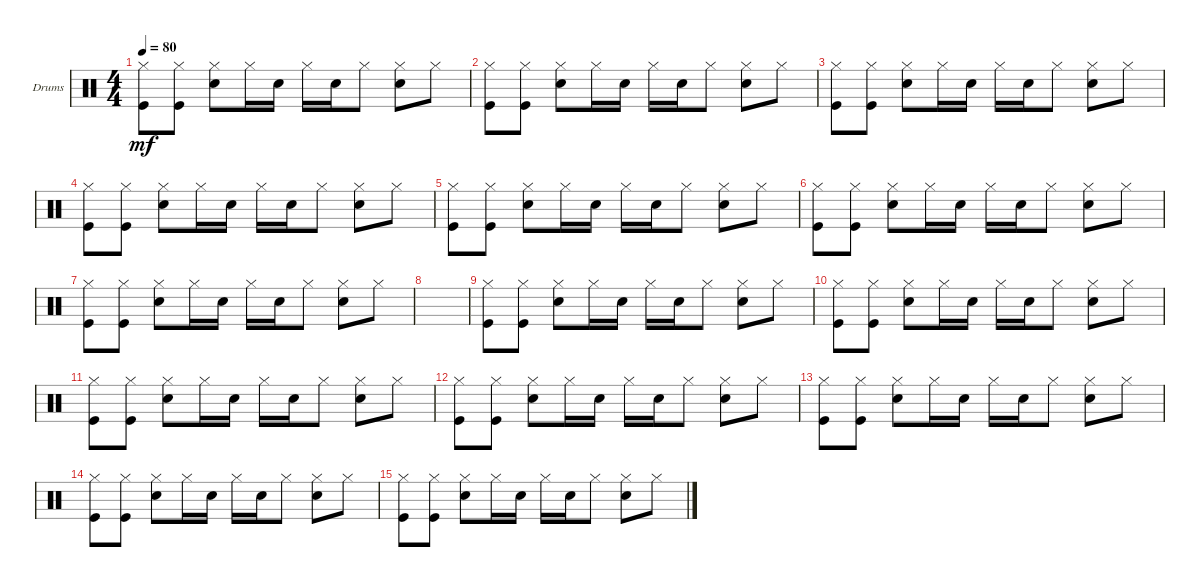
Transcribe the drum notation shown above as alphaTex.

\defaultSystemsLayout 4
\bracketExtendMode groupsimilarinstruments
\firstSystemTrackNameOrientation horizontal
\otherSystemsTrackNameOrientation horizontal
\track ("Drumkit" "Drums") {instrument percussion}
\staff {score}
\articulation defaults
\ts (4 4)
\tempo 80
\clef neutral
\scale
0.333333
\ks c
("Kick (hit)" "Hi-Hat (closed)").8{dy mf} ("Kick (hit)" "Hi-Hat (closed)").8 ("Snare (hit) 2" "Hi-Hat (closed)").8 "Hi-Hat (closed)".16 "Snare (hit) 2".16 "Hi-Hat (closed)".16 "Snare (hit) 2".16 "Hi-Hat (closed)".8 ("Hi-Hat (closed)" "Snare (hit) 2").8 "Hi-Hat (closed)".8 |
\scale
0.333333 ("Kick (hit)" "Hi-Hat (closed)").8 ("Kick (hit)" "Hi-Hat (closed)").8 ("Snare (hit) 2" "Hi-Hat (closed)").8 "Hi-Hat (closed)".16 "Snare (hit) 2".16 "Hi-Hat (closed)".16 "Snare (hit) 2".16 "Hi-Hat (closed)".8 ("Hi-Hat (closed)" "Snare (hit) 2").8 "Hi-Hat (closed)".8 |
\scale
0.333333 ("Kick (hit)" "Hi-Hat (closed)").8 ("Kick (hit)" "Hi-Hat (closed)").8 ("Snare (hit) 2" "Hi-Hat (closed)").8 "Hi-Hat (closed)".16 "Snare (hit) 2".16 "Hi-Hat (closed)".16 "Snare (hit) 2".16 "Hi-Hat (closed)".8 ("Hi-Hat (closed)" "Snare (hit) 2").8 "Hi-Hat (closed)".8 |
\scale
0.333333 ("Kick (hit)" "Hi-Hat (closed)").8 ("Kick (hit)" "Hi-Hat (closed)").8 ("Snare (hit) 2" "Hi-Hat (closed)").8 "Hi-Hat (closed)".16 "Snare (hit) 2".16 "Hi-Hat (closed)".16 "Snare (hit) 2".16 "Hi-Hat (closed)".8 ("Hi-Hat (closed)" "Snare (hit) 2").8 "Hi-Hat (closed)".8 |
\scale
0.333333 ("Kick (hit)" "Hi-Hat (closed)").8 ("Kick (hit)" "Hi-Hat (closed)").8 ("Snare (hit) 2" "Hi-Hat (closed)").8 "Hi-Hat (closed)".16 "Snare (hit) 2".16 "Hi-Hat (closed)".16 "Snare (hit) 2".16 "Hi-Hat (closed)".8 ("Hi-Hat (closed)" "Snare (hit) 2").8 "Hi-Hat (closed)".8 |
\scale
0.333333 ("Kick (hit)" "Hi-Hat (closed)").8 ("Kick (hit)" "Hi-Hat (closed)").8 ("Snare (hit) 2" "Hi-Hat (closed)").8 "Hi-Hat (closed)".16 "Snare (hit) 2".16 "Hi-Hat (closed)".16 "Snare (hit) 2".16 "Hi-Hat (closed)".8 ("Hi-Hat (closed)" "Snare (hit) 2").8 "Hi-Hat (closed)".8 |
\scale
0.333333 ("Kick (hit)" "Hi-Hat (closed)").8 ("Kick (hit)" "Hi-Hat (closed)").8 ("Snare (hit) 2" "Hi-Hat (closed)").8 "Hi-Hat (closed)".16 "Snare (hit) 2".16 "Hi-Hat (closed)".16 "Snare (hit) 2".16 "Hi-Hat (closed)".8 ("Hi-Hat (closed)" "Snare (hit) 2").8 "Hi-Hat (closed)".8 |
\scale
0.333333 |
\scale
0.333333 ("Kick (hit)" "Hi-Hat (closed)").8 ("Kick (hit)" "Hi-Hat (closed)").8 ("Snare (hit) 2" "Hi-Hat (closed)").8 "Hi-Hat (closed)".16 "Snare (hit) 2".16 "Hi-Hat (closed)".16 "Snare (hit) 2".16 "Hi-Hat (closed)".8 ("Hi-Hat (closed)" "Snare (hit) 2").8 "Hi-Hat (closed)".8 |
\scale
0.333333 ("Kick (hit)" "Hi-Hat (closed)").8 ("Kick (hit)" "Hi-Hat (closed)").8 ("Snare (hit) 2" "Hi-Hat (closed)").8 "Hi-Hat (closed)".16 "Snare (hit) 2".16 "Hi-Hat (closed)".16 "Snare (hit) 2".16 "Hi-Hat (closed)".8 ("Hi-Hat (closed)" "Snare (hit) 2").8 "Hi-Hat (closed)".8 |
\scale
0.333333 ("Kick (hit)" "Hi-Hat (closed)").8 ("Kick (hit)" "Hi-Hat (closed)").8 ("Snare (hit) 2" "Hi-Hat (closed)").8 "Hi-Hat (closed)".16 "Snare (hit) 2".16 "Hi-Hat (closed)".16 "Snare (hit) 2".16 "Hi-Hat (closed)".8 ("Hi-Hat (closed)" "Snare (hit) 2").8 "Hi-Hat (closed)".8 |
("Kick (hit)" "Hi-Hat (closed)").8 ("Kick (hit)" "Hi-Hat (closed)").8 ("Snare (hit) 2" "Hi-Hat (closed)").8 "Hi-Hat (closed)".16 "Snare (hit) 2".16 "Hi-Hat (closed)".16 "Snare (hit) 2".16 "Hi-Hat (closed)".8 ("Hi-Hat (closed)" "Snare (hit) 2").8 "Hi-Hat (closed)".8 |
("Kick (hit)" "Hi-Hat (closed)").8 ("Kick (hit)" "Hi-Hat (closed)").8 ("Snare (hit) 2" "Hi-Hat (closed)").8 "Hi-Hat (closed)".16 "Snare (hit) 2".16 "Hi-Hat (closed)".16 "Snare (hit) 2".16 "Hi-Hat (closed)".8 ("Hi-Hat (closed)" "Snare (hit) 2").8 "Hi-Hat (closed)".8 |
("Kick (hit)" "Hi-Hat (closed)").8 ("Kick (hit)" "Hi-Hat (closed)").8 ("Snare (hit) 2" "Hi-Hat (closed)").8 "Hi-Hat (closed)".16 "Snare (hit) 2".16 "Hi-Hat (closed)".16 "Snare (hit) 2".16 "Hi-Hat (closed)".8 ("Hi-Hat (closed)" "Snare (hit) 2").8 "Hi-Hat (closed)".8 |
("Kick (hit)" "Hi-Hat (closed)").8 ("Kick (hit)" "Hi-Hat (closed)").8 ("Snare (hit) 2" "Hi-Hat (closed)").8 "Hi-Hat (closed)".16 "Snare (hit) 2".16 "Hi-Hat (closed)".16 "Snare (hit) 2".16 "Hi-Hat (closed)".8 ("Hi-Hat (closed)" "Snare (hit) 2").8 "Hi-Hat (closed)".8
